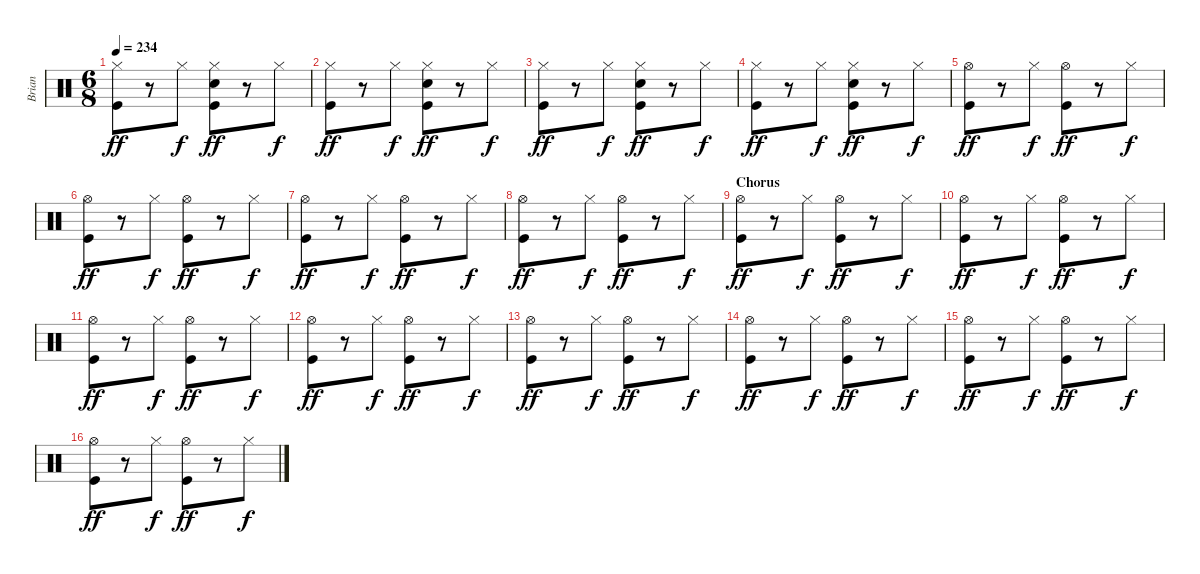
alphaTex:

\track ("Brian" "Brian") {instrument percussion}
\staff {score}
\articulation defaults
\ts (6 8)
\tempo 234
\clef neutral
\ks c
("Hi-Hat (closed)" "Kick (hit)").8{dy ff} r.8 "Hi-Hat (closed)".8{dy f} ("Hi-Hat (closed)" "Electric Snare (hit)" "Kick (hit)").8{dy ff} r.8 "Hi-Hat (closed)".8{dy f} |
("Hi-Hat (closed)" "Kick (hit)").8{dy ff} r.8 "Hi-Hat (closed)".8{dy f} ("Hi-Hat (closed)" "Electric Snare (hit)" "Kick (hit)").8{dy ff} r.8 "Hi-Hat (closed)".8{dy f} |
("Hi-Hat (closed)" "Kick (hit)").8{dy ff} r.8 "Hi-Hat (closed)".8{dy f} ("Hi-Hat (closed)" "Electric Snare (hit)" "Kick (hit)").8{dy ff} r.8 "Hi-Hat (closed)".8{dy f} |
("Hi-Hat (closed)" "Kick (hit)").8{dy ff} r.8 "Hi-Hat (closed)".8{dy f} ("Hi-Hat (closed)" "Electric Snare (hit)" "Kick (hit)").8{dy ff} r.8 "Hi-Hat (closed)".8{dy f} |
("Hi-Hat (open)" "Kick (hit)").8{dy ff} r.8 "Hi-Hat (closed)".8{dy f} ("Hi-Hat (open)" "Kick (hit)").8{dy ff} r.8 "Hi-Hat (closed)".8{dy f} |
("Hi-Hat (open)" "Kick (hit)").8{dy ff} r.8 "Hi-Hat (closed)".8{dy f} ("Hi-Hat (open)" "Kick (hit)").8{dy ff} r.8 "Hi-Hat (closed)".8{dy f} |
("Hi-Hat (open)" "Kick (hit)").8{dy ff} r.8 "Hi-Hat (closed)".8{dy f} ("Hi-Hat (open)" "Kick (hit)").8{dy ff} r.8 "Hi-Hat (closed)".8{dy f} |
("Hi-Hat (open)" "Kick (hit)").8{dy ff} r.8 "Hi-Hat (closed)".8{dy f} ("Hi-Hat (open)" "Kick (hit)").8{dy ff} r.8 "Hi-Hat (closed)".8{dy f} |
\section ("" "Chorus")
("Hi-Hat (open)" "Kick (hit)").8{dy ff} r.8 "Hi-Hat (closed)".8{dy f} ("Hi-Hat (open)" "Kick (hit)").8{dy ff} r.8 "Hi-Hat (closed)".8{dy f} |
("Hi-Hat (open)" "Kick (hit)").8{dy ff} r.8 "Hi-Hat (closed)".8{dy f} ("Hi-Hat (open)" "Kick (hit)").8{dy ff} r.8 "Hi-Hat (closed)".8{dy f} |
("Hi-Hat (open)" "Kick (hit)").8{dy ff} r.8 "Hi-Hat (closed)".8{dy f} ("Hi-Hat (open)" "Kick (hit)").8{dy ff} r.8 "Hi-Hat (closed)".8{dy f} |
("Hi-Hat (open)" "Kick (hit)").8{dy ff} r.8 "Hi-Hat (closed)".8{dy f} ("Hi-Hat (open)" "Kick (hit)").8{dy ff} r.8 "Hi-Hat (closed)".8{dy f} |
("Hi-Hat (open)" "Kick (hit)").8{dy ff} r.8 "Hi-Hat (closed)".8{dy f} ("Hi-Hat (open)" "Kick (hit)").8{dy ff} r.8 "Hi-Hat (closed)".8{dy f} |
("Hi-Hat (open)" "Kick (hit)").8{dy ff} r.8 "Hi-Hat (closed)".8{dy f} ("Hi-Hat (open)" "Kick (hit)").8{dy ff} r.8 "Hi-Hat (closed)".8{dy f} |
("Hi-Hat (open)" "Kick (hit)").8{dy ff} r.8 "Hi-Hat (closed)".8{dy f} ("Hi-Hat (open)" "Kick (hit)").8{dy ff} r.8 "Hi-Hat (closed)".8{dy f} |
("Hi-Hat (open)" "Kick (hit)").8{dy ff} r.8 "Hi-Hat (closed)".8{dy f} ("Hi-Hat (open)" "Kick (hit)").8{dy ff} r.8 "Hi-Hat (closed)".8{dy f}
